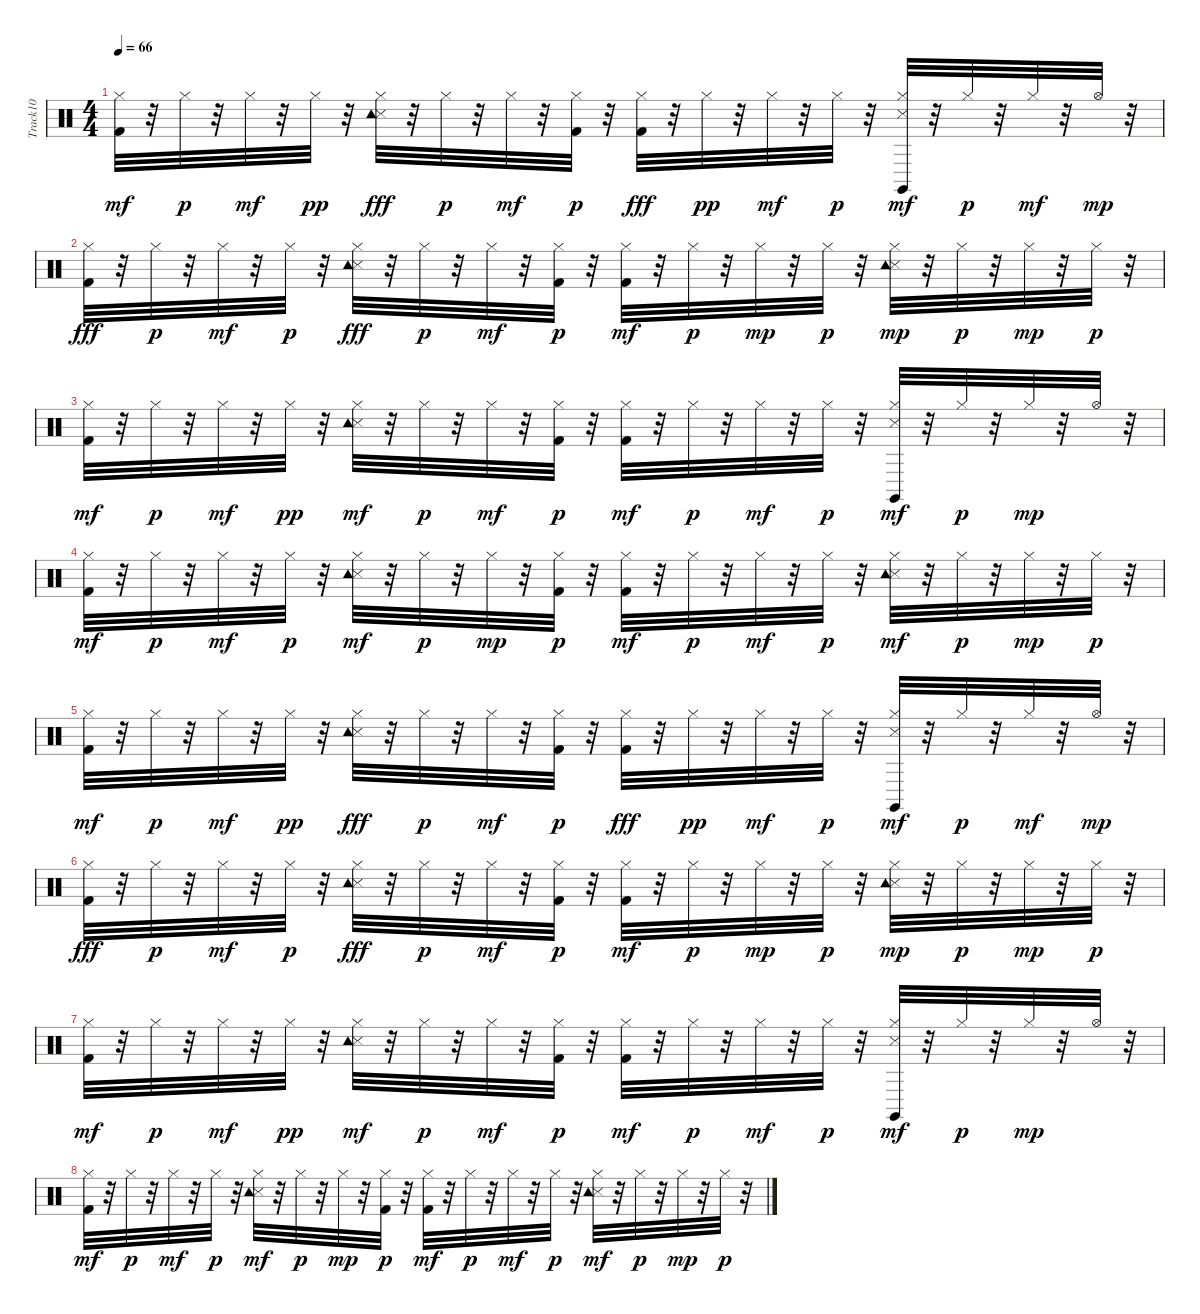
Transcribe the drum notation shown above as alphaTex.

\track ("Track10" "Track10") {instrument percussion}
\staff {score}
\articulation defaults
\ts (4 4)
\tempo 66
\clef neutral
\ks c
("Kick (hit) 2" "Hi-Hat (closed)").32{dy mf} r.32 "Hi-Hat (closed)".32{dy p} r.32 "Hi-Hat (closed)".32{dy mf} r.32 "Hi-Hat (closed)".32{dy pp} r.32 ("Snare (side stick) 3" "Tambourine (hit)" "Hi-Hat (closed)").32{dy fff} r.32 "Hi-Hat (closed)".32{dy p} r.32 "Hi-Hat (closed)".32{dy mf} r.32 ("Kick (hit) 2" "Hi-Hat (closed)").32{dy p} r.32 ("Kick (hit) 2" "Hi-Hat (closed)").32{dy fff} r.32 "Hi-Hat (closed)".32{dy pp} r.32 "Hi-Hat (closed)".32{dy mf} r.32 "Hi-Hat (closed)".32{dy p} r.32 ("Snare (side stick) 3" "Claves (hit)" "Hi-Hat (closed)").32{dy mf} r.32 "Hi-Hat (closed)".32{dy p} r.32 "Hi-Hat (closed)".32{dy mf} r.32 "Hi-Hat (open)".32{dy mp} r.32 |
("Kick (hit) 2" "Hi-Hat (closed)").32{dy fff} r.32 "Hi-Hat (closed)".32{dy p} r.32 "Hi-Hat (closed)".32{dy mf} r.32 "Hi-Hat (closed)".32{dy p} r.32 ("Snare (side stick) 3" "Tambourine (hit)" "Hi-Hat (closed)").32{dy fff} r.32 "Hi-Hat (closed)".32{dy p} r.32 "Hi-Hat (closed)".32{dy mf} r.32 ("Kick (hit) 2" "Hi-Hat (closed)").32{dy p} r.32 ("Kick (hit) 2" "Hi-Hat (closed)").32{dy mf} r.32 "Hi-Hat (closed)".32{dy p} r.32 "Hi-Hat (closed)".32{dy mp} r.32 "Hi-Hat (closed)".32{dy p} r.32 ("Snare (side stick) 3" "Tambourine (hit)" "Hi-Hat (closed)").32{dy mp} r.32 "Hi-Hat (closed)".32{dy p} r.32 "Hi-Hat (closed)".32{dy mp} r.32 "Hi-Hat (closed)".32{dy p} r.32 |
("Kick (hit) 2" "Hi-Hat (closed)").32{dy mf} r.32 "Hi-Hat (closed)".32{dy p} r.32 "Hi-Hat (closed)".32{dy mf} r.32 "Hi-Hat (closed)".32{dy pp} r.32 ("Snare (side stick) 3" "Tambourine (hit)" "Hi-Hat (closed)").32{dy mf} r.32 "Hi-Hat (closed)".32{dy p} r.32 "Hi-Hat (closed)".32{dy mf} r.32 ("Kick (hit) 2" "Hi-Hat (closed)").32{dy p} r.32 ("Kick (hit) 2" "Hi-Hat (closed)").32{dy mf} r.32 "Hi-Hat (closed)".32{dy p} r.32 "Hi-Hat (closed)".32{dy mf} r.32 "Hi-Hat (closed)".32{dy p} r.32 ("Snare (side stick) 3" "Claves (hit)" "Hi-Hat (closed)").32{dy mf} r.32 "Hi-Hat (closed)".32{dy p} r.32 "Hi-Hat (closed)".32{dy mp} r.32 "Hi-Hat (open)".32 r.32 |
("Kick (hit) 2" "Hi-Hat (closed)").32{dy mf} r.32 "Hi-Hat (closed)".32{dy p} r.32 "Hi-Hat (closed)".32{dy mf} r.32 "Hi-Hat (closed)".32{dy p} r.32 ("Snare (side stick) 3" "Tambourine (hit)" "Hi-Hat (closed)").32{dy mf} r.32 "Hi-Hat (closed)".32{dy p} r.32 "Hi-Hat (closed)".32{dy mp} r.32 ("Kick (hit) 2" "Hi-Hat (closed)").32{dy p} r.32 ("Kick (hit) 2" "Hi-Hat (closed)").32{dy mf} r.32 "Hi-Hat (closed)".32{dy p} r.32 "Hi-Hat (closed)".32{dy mf} r.32 "Hi-Hat (closed)".32{dy p} r.32 ("Snare (side stick) 3" "Tambourine (hit)" "Hi-Hat (closed)").32{dy mf} r.32 "Hi-Hat (closed)".32{dy p} r.32 "Hi-Hat (closed)".32{dy mp} r.32 "Hi-Hat (closed)".32{dy p} r.32 |
("Kick (hit) 2" "Hi-Hat (closed)").32{dy mf} r.32 "Hi-Hat (closed)".32{dy p} r.32 "Hi-Hat (closed)".32{dy mf} r.32 "Hi-Hat (closed)".32{dy pp} r.32 ("Snare (side stick) 3" "Tambourine (hit)" "Hi-Hat (closed)").32{dy fff} r.32 "Hi-Hat (closed)".32{dy p} r.32 "Hi-Hat (closed)".32{dy mf} r.32 ("Kick (hit) 2" "Hi-Hat (closed)").32{dy p} r.32 ("Kick (hit) 2" "Hi-Hat (closed)").32{dy fff} r.32 "Hi-Hat (closed)".32{dy pp} r.32 "Hi-Hat (closed)".32{dy mf} r.32 "Hi-Hat (closed)".32{dy p} r.32 ("Snare (side stick) 3" "Claves (hit)" "Hi-Hat (closed)").32{dy mf} r.32 "Hi-Hat (closed)".32{dy p} r.32 "Hi-Hat (closed)".32{dy mf} r.32 "Hi-Hat (open)".32{dy mp} r.32 |
("Kick (hit) 2" "Hi-Hat (closed)").32{dy fff} r.32 "Hi-Hat (closed)".32{dy p} r.32 "Hi-Hat (closed)".32{dy mf} r.32 "Hi-Hat (closed)".32{dy p} r.32 ("Snare (side stick) 3" "Tambourine (hit)" "Hi-Hat (closed)").32{dy fff} r.32 "Hi-Hat (closed)".32{dy p} r.32 "Hi-Hat (closed)".32{dy mf} r.32 ("Kick (hit) 2" "Hi-Hat (closed)").32{dy p} r.32 ("Kick (hit) 2" "Hi-Hat (closed)").32{dy mf} r.32 "Hi-Hat (closed)".32{dy p} r.32 "Hi-Hat (closed)".32{dy mp} r.32 "Hi-Hat (closed)".32{dy p} r.32 ("Snare (side stick) 3" "Tambourine (hit)" "Hi-Hat (closed)").32{dy mp} r.32 "Hi-Hat (closed)".32{dy p} r.32 "Hi-Hat (closed)".32{dy mp} r.32 "Hi-Hat (closed)".32{dy p} r.32 |
("Kick (hit) 2" "Hi-Hat (closed)").32{dy mf} r.32 "Hi-Hat (closed)".32{dy p} r.32 "Hi-Hat (closed)".32{dy mf} r.32 "Hi-Hat (closed)".32{dy pp} r.32 ("Snare (side stick) 3" "Tambourine (hit)" "Hi-Hat (closed)").32{dy mf} r.32 "Hi-Hat (closed)".32{dy p} r.32 "Hi-Hat (closed)".32{dy mf} r.32 ("Kick (hit) 2" "Hi-Hat (closed)").32{dy p} r.32 ("Kick (hit) 2" "Hi-Hat (closed)").32{dy mf} r.32 "Hi-Hat (closed)".32{dy p} r.32 "Hi-Hat (closed)".32{dy mf} r.32 "Hi-Hat (closed)".32{dy p} r.32 ("Snare (side stick) 3" "Claves (hit)" "Hi-Hat (closed)").32{dy mf} r.32 "Hi-Hat (closed)".32{dy p} r.32 "Hi-Hat (closed)".32{dy mp} r.32 "Hi-Hat (open)".32 r.32 |
("Kick (hit) 2" "Hi-Hat (closed)").32{dy mf} r.32 "Hi-Hat (closed)".32{dy p} r.32 "Hi-Hat (closed)".32{dy mf} r.32 "Hi-Hat (closed)".32{dy p} r.32 ("Snare (side stick) 3" "Tambourine (hit)" "Hi-Hat (closed)").32{dy mf} r.32 "Hi-Hat (closed)".32{dy p} r.32 "Hi-Hat (closed)".32{dy mp} r.32 ("Kick (hit) 2" "Hi-Hat (closed)").32{dy p} r.32 ("Kick (hit) 2" "Hi-Hat (closed)").32{dy mf} r.32 "Hi-Hat (closed)".32{dy p} r.32 "Hi-Hat (closed)".32{dy mf} r.32 "Hi-Hat (closed)".32{dy p} r.32 ("Snare (side stick) 3" "Tambourine (hit)" "Hi-Hat (closed)").32{dy mf} r.32 "Hi-Hat (closed)".32{dy p} r.32 "Hi-Hat (closed)".32{dy mp} r.32 "Hi-Hat (closed)".32{dy p} r.32
